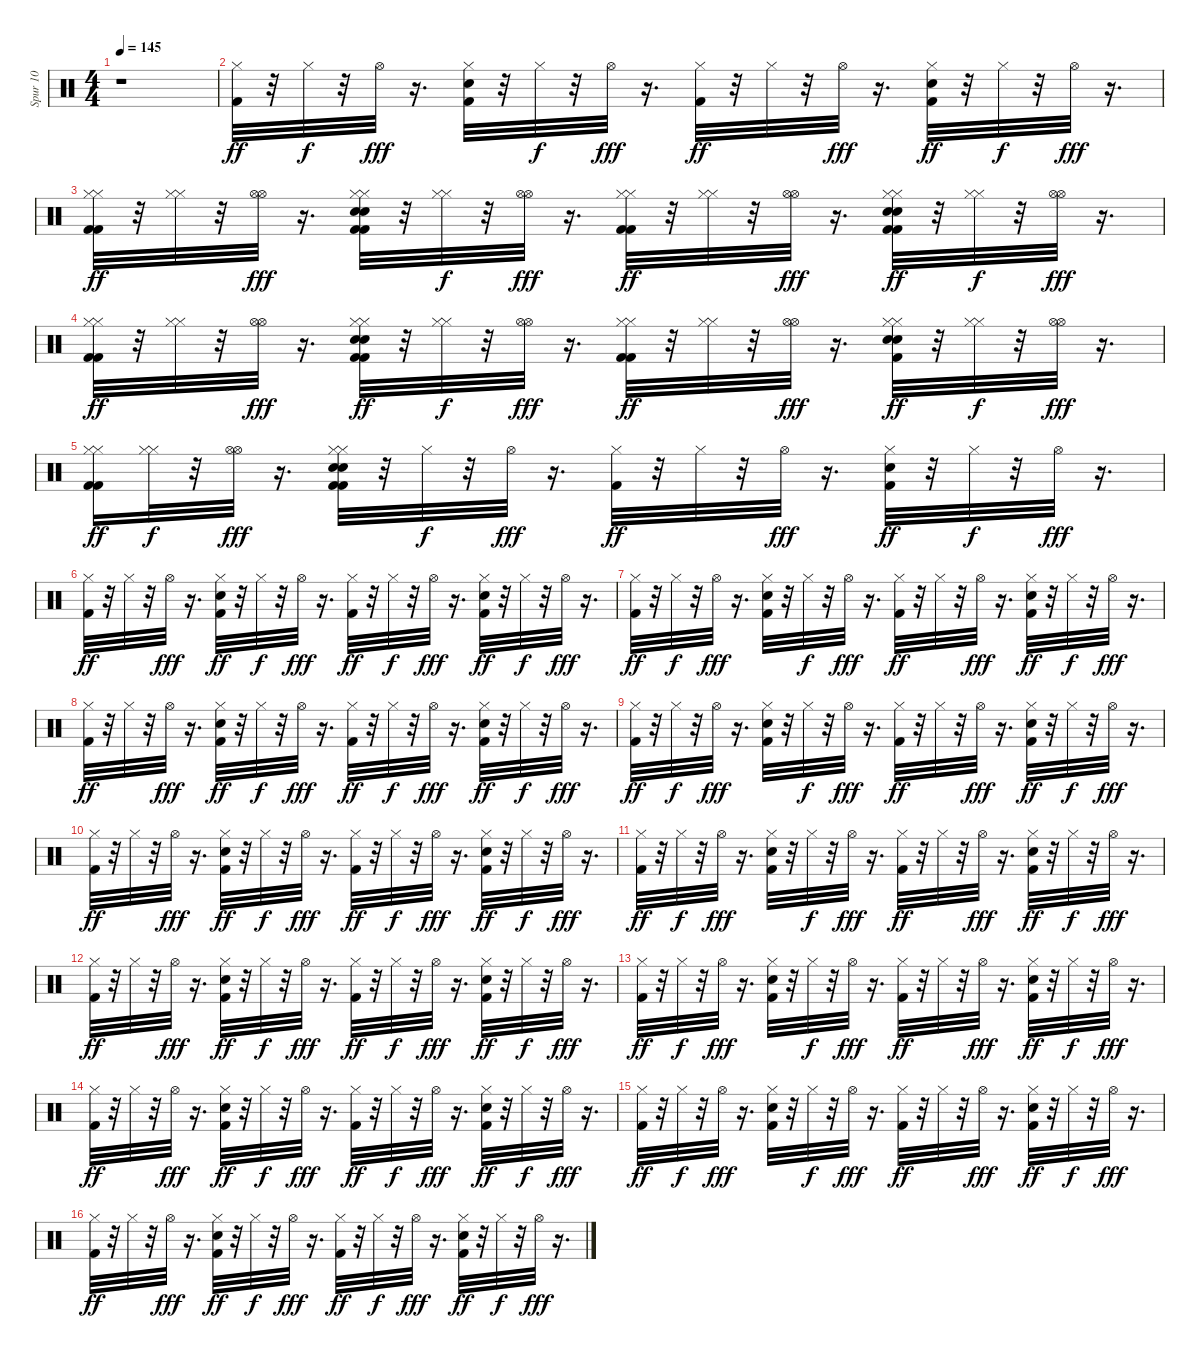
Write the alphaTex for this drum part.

\track ("Spur 10" "Spur 10") {instrument percussion}
\staff {score}
\articulation defaults
\ts (4 4)
\tempo 145
\clef neutral
\ks c
r.1{dy ff} |
("Hi-Hat (closed)" "Kick (hit) 2").32 r.32 "Hi-Hat (closed)".32{dy f} r.32 "Hi-Hat (open)".32{dy fff} r.16{d} ("Hand Clap (hit)" "Kick (hit) 2" "Hi-Hat (closed)").32 r.32 "Hi-Hat (closed)".32{dy f} r.32 "Hi-Hat (open)".32{dy fff} r.16{d} ("Hi-Hat (closed)" "Kick (hit) 2").32{dy ff} r.32 "Hi-Hat (closed)".32 r.32 "Hi-Hat (open)".32{dy fff} r.16{d} ("Hand Clap (hit)" "Hi-Hat (closed)" "Kick (hit) 2").32{dy ff} r.32 "Hi-Hat (closed)".32{dy f} r.32 "Hi-Hat (open)".32{dy fff} r.16{d} |
("Hi-Hat (closed)" "Kick (hit) 2" "Hi-Hat (closed)" "Kick (hit) 2").32{dy ff} r.32 ("Hi-Hat (closed)" "Hi-Hat (closed)").32 r.32 ("Hi-Hat (open)" "Hi-Hat (open)").32{dy fff} r.16{d} ("Hand Clap (hit)" "Hi-Hat (closed)" "Kick (hit) 2" "Hand Clap (hit)" "Kick (hit) 2" "Hi-Hat (closed)").32 r.32 ("Hi-Hat (closed)" "Hi-Hat (closed)").32{dy f} r.32 ("Hi-Hat (open)" "Hi-Hat (open)").32{dy fff} r.16{d} ("Hi-Hat (closed)" "Kick (hit) 2" "Hi-Hat (closed)" "Kick (hit) 2").32{dy ff} r.32 ("Hi-Hat (closed)" "Hi-Hat (closed)").32 r.32 ("Hi-Hat (open)" "Hi-Hat (open)").32{dy fff} r.16{d} ("Hi-Hat (closed)" "Hand Clap (hit)" "Kick (hit) 2" "Hand Clap (hit)" "Hi-Hat (closed)" "Kick (hit) 2").32{dy ff} r.32 ("Hi-Hat (closed)" "Hi-Hat (closed)").32{dy f} r.32 ("Hi-Hat (open)" "Hi-Hat (open)").32{dy fff} r.16{d} |
("Hi-Hat (closed)" "Kick (hit) 2" "Hi-Hat (closed)" "Kick (hit) 2").32{dy ff} r.32 ("Hi-Hat (closed)" "Hi-Hat (closed)").32 r.32 ("Hi-Hat (open)" "Hi-Hat (open)").32{dy fff} r.16{d} ("Hand Clap (hit)" "Kick (hit) 2" "Hi-Hat (closed)" "Hand Clap (hit)" "Hi-Hat (closed)" "Kick (hit) 2").32{dy ff} r.32 ("Hi-Hat (closed)" "Hi-Hat (closed)").32{dy f} r.32 ("Hi-Hat (open)" "Hi-Hat (open)").32{dy fff} r.16{d} ("Hi-Hat (closed)" "Kick (hit) 2" "Hi-Hat (closed)" "Kick (hit) 2").32{dy ff} r.32 ("Hi-Hat (closed)" "Hi-Hat (closed)").32 r.32 ("Hi-Hat (open)" "Hi-Hat (open)").32{dy fff} r.16{d} ("Hand Clap (hit)" "Hi-Hat (closed)" "Hi-Hat (closed)" "Hand Clap (hit)" "Kick (hit) 2").32{dy ff} r.32 ("Hi-Hat (closed)" "Hi-Hat (closed)").32{dy f} r.32 ("Hi-Hat (open)" "Hi-Hat (open)").32{dy fff} r.16{d} |
("Hi-Hat (closed)" "Kick (hit) 2" "Hi-Hat (closed)" "Kick (hit) 2").16{dy ff} ("Hi-Hat (closed)" "Hi-Hat (closed)").32{dy f} r.32 ("Hi-Hat (open)" "Hi-Hat (open)").32{dy fff} r.16{d} ("Hi-Hat (closed)" "Hand Clap (hit)" "Kick (hit) 2" "Hand Clap (hit)" "Kick (hit) 2" "Hi-Hat (closed)").32 r.32 "Hi-Hat (closed)".32{dy f} r.32 "Hi-Hat (open)".32{dy fff} r.16{d} ("Hi-Hat (closed)" "Kick (hit) 2").32{dy ff} r.32 "Hi-Hat (closed)".32 r.32 "Hi-Hat (open)".32{dy fff} r.16{d} ("Hand Clap (hit)" "Hi-Hat (closed)" "Kick (hit) 2").32{dy ff} r.32 "Hi-Hat (closed)".32{dy f} r.32 "Hi-Hat (open)".32{dy fff} r.16{d} |
("Hi-Hat (closed)" "Kick (hit) 2").32{dy ff} r.32 "Hi-Hat (closed)".32 r.32 "Hi-Hat (open)".32{dy fff} r.16{d} ("Hand Clap (hit)" "Hi-Hat (closed)" "Kick (hit) 2").32{dy ff} r.32 "Hi-Hat (closed)".32{dy f} r.32 "Hi-Hat (open)".32{dy fff} r.16{d} ("Hi-Hat (closed)" "Kick (hit) 2").32{dy ff} r.32 "Hi-Hat (closed)".32{dy f} r.32 "Hi-Hat (open)".32{dy fff} r.16{d} ("Hi-Hat (closed)" "Hand Clap (hit)" "Kick (hit) 2").32{dy ff} r.32 "Hi-Hat (closed)".32{dy f} r.32 "Hi-Hat (open)".32{dy fff} r.16{d} |
("Hi-Hat (closed)" "Kick (hit) 2").32{dy ff} r.32 "Hi-Hat (closed)".32{dy f} r.32 "Hi-Hat (open)".32{dy fff} r.16{d} ("Hand Clap (hit)" "Kick (hit) 2" "Hi-Hat (closed)").32 r.32 "Hi-Hat (closed)".32{dy f} r.32 "Hi-Hat (open)".32{dy fff} r.16{d} ("Hi-Hat (closed)" "Kick (hit) 2").32{dy ff} r.32 "Hi-Hat (closed)".32 r.32 "Hi-Hat (open)".32{dy fff} r.16{d} ("Hand Clap (hit)" "Hi-Hat (closed)" "Kick (hit) 2").32{dy ff} r.32 "Hi-Hat (closed)".32{dy f} r.32 "Hi-Hat (open)".32{dy fff} r.16{d} |
("Hi-Hat (closed)" "Kick (hit) 2").32{dy ff} r.32 "Hi-Hat (closed)".32 r.32 "Hi-Hat (open)".32{dy fff} r.16{d} ("Hand Clap (hit)" "Hi-Hat (closed)" "Kick (hit) 2").32{dy ff} r.32 "Hi-Hat (closed)".32{dy f} r.32 "Hi-Hat (open)".32{dy fff} r.16{d} ("Hi-Hat (closed)" "Kick (hit) 2").32{dy ff} r.32 "Hi-Hat (closed)".32{dy f} r.32 "Hi-Hat (open)".32{dy fff} r.16{d} ("Hi-Hat (closed)" "Hand Clap (hit)" "Kick (hit) 2").32{dy ff} r.32 "Hi-Hat (closed)".32{dy f} r.32 "Hi-Hat (open)".32{dy fff} r.16{d} |
("Hi-Hat (closed)" "Kick (hit) 2").32{dy ff} r.32 "Hi-Hat (closed)".32{dy f} r.32 "Hi-Hat (open)".32{dy fff} r.16{d} ("Hand Clap (hit)" "Kick (hit) 2" "Hi-Hat (closed)").32 r.32 "Hi-Hat (closed)".32{dy f} r.32 "Hi-Hat (open)".32{dy fff} r.16{d} ("Hi-Hat (closed)" "Kick (hit) 2").32{dy ff} r.32 "Hi-Hat (closed)".32 r.32 "Hi-Hat (open)".32{dy fff} r.16{d} ("Hand Clap (hit)" "Hi-Hat (closed)" "Kick (hit) 2").32{dy ff} r.32 "Hi-Hat (closed)".32{dy f} r.32 "Hi-Hat (open)".32{dy fff} r.16{d} |
("Hi-Hat (closed)" "Kick (hit) 2").32{dy ff} r.32 "Hi-Hat (closed)".32 r.32 "Hi-Hat (open)".32{dy fff} r.16{d} ("Hand Clap (hit)" "Hi-Hat (closed)" "Kick (hit) 2").32{dy ff} r.32 "Hi-Hat (closed)".32{dy f} r.32 "Hi-Hat (open)".32{dy fff} r.16{d} ("Hi-Hat (closed)" "Kick (hit) 2").32{dy ff} r.32 "Hi-Hat (closed)".32{dy f} r.32 "Hi-Hat (open)".32{dy fff} r.16{d} ("Hi-Hat (closed)" "Hand Clap (hit)" "Kick (hit) 2").32{dy ff} r.32 "Hi-Hat (closed)".32{dy f} r.32 "Hi-Hat (open)".32{dy fff} r.16{d} |
("Hi-Hat (closed)" "Kick (hit) 2").32{dy ff} r.32 "Hi-Hat (closed)".32{dy f} r.32 "Hi-Hat (open)".32{dy fff} r.16{d} ("Hand Clap (hit)" "Kick (hit) 2" "Hi-Hat (closed)").32 r.32 "Hi-Hat (closed)".32{dy f} r.32 "Hi-Hat (open)".32{dy fff} r.16{d} ("Hi-Hat (closed)" "Kick (hit) 2").32{dy ff} r.32 "Hi-Hat (closed)".32 r.32 "Hi-Hat (open)".32{dy fff} r.16{d} ("Hand Clap (hit)" "Hi-Hat (closed)" "Kick (hit) 2").32{dy ff} r.32 "Hi-Hat (closed)".32{dy f} r.32 "Hi-Hat (open)".32{dy fff} r.16{d} |
("Hi-Hat (closed)" "Kick (hit) 2").32{dy ff} r.32 "Hi-Hat (closed)".32 r.32 "Hi-Hat (open)".32{dy fff} r.16{d} ("Hand Clap (hit)" "Hi-Hat (closed)" "Kick (hit) 2").32{dy ff} r.32 "Hi-Hat (closed)".32{dy f} r.32 "Hi-Hat (open)".32{dy fff} r.16{d} ("Hi-Hat (closed)" "Kick (hit) 2").32{dy ff} r.32 "Hi-Hat (closed)".32{dy f} r.32 "Hi-Hat (open)".32{dy fff} r.16{d} ("Hi-Hat (closed)" "Hand Clap (hit)" "Kick (hit) 2").32{dy ff} r.32 "Hi-Hat (closed)".32{dy f} r.32 "Hi-Hat (open)".32{dy fff} r.16{d} |
("Hi-Hat (closed)" "Kick (hit) 2").32{dy ff} r.32 "Hi-Hat (closed)".32{dy f} r.32 "Hi-Hat (open)".32{dy fff} r.16{d} ("Hand Clap (hit)" "Kick (hit) 2" "Hi-Hat (closed)").32 r.32 "Hi-Hat (closed)".32{dy f} r.32 "Hi-Hat (open)".32{dy fff} r.16{d} ("Hi-Hat (closed)" "Kick (hit) 2").32{dy ff} r.32 "Hi-Hat (closed)".32 r.32 "Hi-Hat (open)".32{dy fff} r.16{d} ("Hand Clap (hit)" "Hi-Hat (closed)" "Kick (hit) 2").32{dy ff} r.32 "Hi-Hat (closed)".32{dy f} r.32 "Hi-Hat (open)".32{dy fff} r.16{d} |
("Hi-Hat (closed)" "Kick (hit) 2").32{dy ff} r.32 "Hi-Hat (closed)".32 r.32 "Hi-Hat (open)".32{dy fff} r.16{d} ("Hand Clap (hit)" "Hi-Hat (closed)" "Kick (hit) 2").32{dy ff} r.32 "Hi-Hat (closed)".32{dy f} r.32 "Hi-Hat (open)".32{dy fff} r.16{d} ("Hi-Hat (closed)" "Kick (hit) 2").32{dy ff} r.32 "Hi-Hat (closed)".32{dy f} r.32 "Hi-Hat (open)".32{dy fff} r.16{d} ("Hi-Hat (closed)" "Hand Clap (hit)" "Kick (hit) 2").32{dy ff} r.32 "Hi-Hat (closed)".32{dy f} r.32 "Hi-Hat (open)".32{dy fff} r.16{d} |
("Hi-Hat (closed)" "Kick (hit) 2").32{dy ff} r.32 "Hi-Hat (closed)".32{dy f} r.32 "Hi-Hat (open)".32{dy fff} r.16{d} ("Hand Clap (hit)" "Kick (hit) 2" "Hi-Hat (closed)").32 r.32 "Hi-Hat (closed)".32{dy f} r.32 "Hi-Hat (open)".32{dy fff} r.16{d} ("Hi-Hat (closed)" "Kick (hit) 2").32{dy ff} r.32 "Hi-Hat (closed)".32 r.32 "Hi-Hat (open)".32{dy fff} r.16{d} ("Hand Clap (hit)" "Hi-Hat (closed)" "Kick (hit) 2").32{dy ff} r.32 "Hi-Hat (closed)".32{dy f} r.32 "Hi-Hat (open)".32{dy fff} r.16{d} |
("Hi-Hat (closed)" "Kick (hit) 2").32{dy ff} r.32 "Hi-Hat (closed)".32 r.32 "Hi-Hat (open)".32{dy fff} r.16{d} ("Hand Clap (hit)" "Hi-Hat (closed)" "Kick (hit) 2").32{dy ff} r.32 "Hi-Hat (closed)".32{dy f} r.32 "Hi-Hat (open)".32{dy fff} r.16{d} ("Hi-Hat (closed)" "Kick (hit) 2").32{dy ff} r.32 "Hi-Hat (closed)".32{dy f} r.32 "Hi-Hat (open)".32{dy fff} r.16{d} ("Hi-Hat (closed)" "Hand Clap (hit)" "Kick (hit) 2").32{dy ff} r.32 "Hi-Hat (closed)".32{dy f} r.32 "Hi-Hat (open)".32{dy fff} r.16{d}
